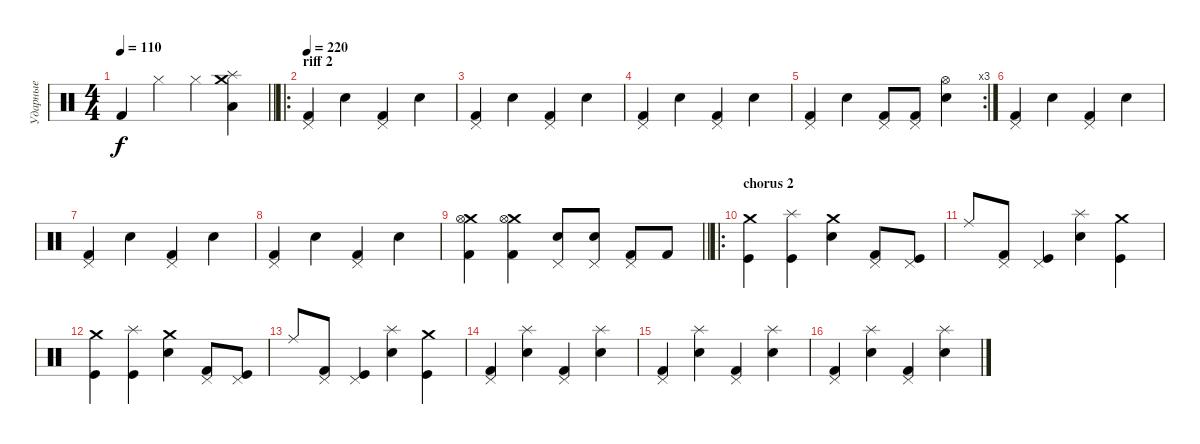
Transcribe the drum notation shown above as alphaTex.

\track ("Ударные" "Ударные") {instrument percussion}
\staff
\articulation defaults
\ts (4 4)
\tempo 110
\clef neutral
\barLineRight lightlight
\ks c "Kick (hit) 2".4{dy f} "Hi-Hat (closed)".4 "Hi-Hat (closed)".4
("Crash medium (hit)" "Splash (hit)" "Low Tom (hit)").4 |
\ro
\section ("" "riff 2")
\tempo 220
("Pedal Hi-Hat (hit)" "Kick (hit) 2").4 "Electric Snare (hit)".4 ("Pedal Hi-Hat (hit)" "Kick (hit) 2").4 "Electric Snare (hit)".4 |
("Pedal Hi-Hat (hit)" "Kick (hit) 2").4 "Electric Snare (hit)".4 ("Pedal Hi-Hat (hit)" "Kick (hit) 2").4 "Electric Snare (hit)".4 |
("Pedal Hi-Hat (hit)" "Kick (hit) 2").4 "Electric Snare (hit)".4 ("Pedal Hi-Hat (hit)" "Kick (hit) 2").4 "Electric Snare (hit)".4 |
\rc 3
("Pedal Hi-Hat (hit)" "Kick (hit) 2").4 "Electric Snare (hit)".4 ("Pedal Hi-Hat (hit)" "Kick (hit) 2").8 ("Pedal Hi-Hat (hit)" "Kick (hit) 2").8 ("Hi-Hat (open)" "Electric Snare (hit)").4 |
("Pedal Hi-Hat (hit)" "Kick (hit) 2").4 "Electric Snare (hit)".4 ("Pedal Hi-Hat (hit)" "Kick (hit) 2").4 "Electric Snare (hit)".4 |
("Pedal Hi-Hat (hit)" "Kick (hit) 2").4 "Electric Snare (hit)".4 ("Pedal Hi-Hat (hit)" "Kick (hit) 2").4 "Electric Snare (hit)".4 |
("Pedal Hi-Hat (hit)" "Kick (hit) 2").4 "Electric Snare (hit)".4 ("Pedal Hi-Hat (hit)" "Kick (hit) 2").4 "Electric Snare (hit)".4 |
\barLineRight lightlight
("Crash medium (hit)" "Hi-Hat (open)" "Kick (hit) 2").4 ("Crash medium (hit)" "Hi-Hat (open)" "Kick (hit) 2").4 ("Pedal Hi-Hat (hit)" "Electric Snare (hit)").8 ("Pedal Hi-Hat (hit)" "Electric Snare (hit)").8 ("Pedal Hi-Hat (hit)" "Kick (hit) 2").8 "Kick (hit) 2".8 |
\ro
\section ("" "chorus 2")
("Crash medium (hit)" "Kick (hit)").4 ("Splash (hit)" "Kick (hit)").4 ("Crash medium (hit)" "Electric Snare (hit)").4 ("Pedal Hi-Hat (hit)" "Kick (hit) 2").8 ("Pedal Hi-Hat (hit)" "Kick (hit)").8 |
"Ride (middle)".8 ("Pedal Hi-Hat (hit)" "Kick (hit) 2").8 ("Pedal Hi-Hat (hit)" "Kick (hit)").4 ("Splash (hit)" "Electric Snare (hit)").4 ("Crash medium (hit)" "Kick (hit)").4 |
("Crash medium (hit)" "Kick (hit)").4 ("Splash (hit)" "Kick (hit)").4 ("Crash medium (hit)" "Electric Snare (hit)").4 ("Pedal Hi-Hat (hit)" "Kick (hit) 2").8 ("Pedal Hi-Hat (hit)" "Kick (hit)").8 |
"Ride (middle)".8 ("Pedal Hi-Hat (hit)" "Kick (hit) 2").8 ("Pedal Hi-Hat (hit)" "Kick (hit)").4 ("Splash (hit)" "Electric Snare (hit)").4 ("Crash medium (hit)" "Kick (hit)").4 |
("Pedal Hi-Hat (hit)" "Kick (hit) 2").4 ("Splash (hit)" "Electric Snare (hit)").4 ("Pedal Hi-Hat (hit)" "Kick (hit) 2").4 ("Splash (hit)" "Electric Snare (hit)").4 |
("Pedal Hi-Hat (hit)" "Kick (hit) 2").4 ("Splash (hit)" "Electric Snare (hit)").4 ("Pedal Hi-Hat (hit)" "Kick (hit) 2").4 ("Splash (hit)" "Electric Snare (hit)").4 |
("Pedal Hi-Hat (hit)" "Kick (hit) 2").4 ("Splash (hit)" "Electric Snare (hit)").4 ("Pedal Hi-Hat (hit)" "Kick (hit) 2").4 ("Splash (hit)" "Electric Snare (hit)").4
